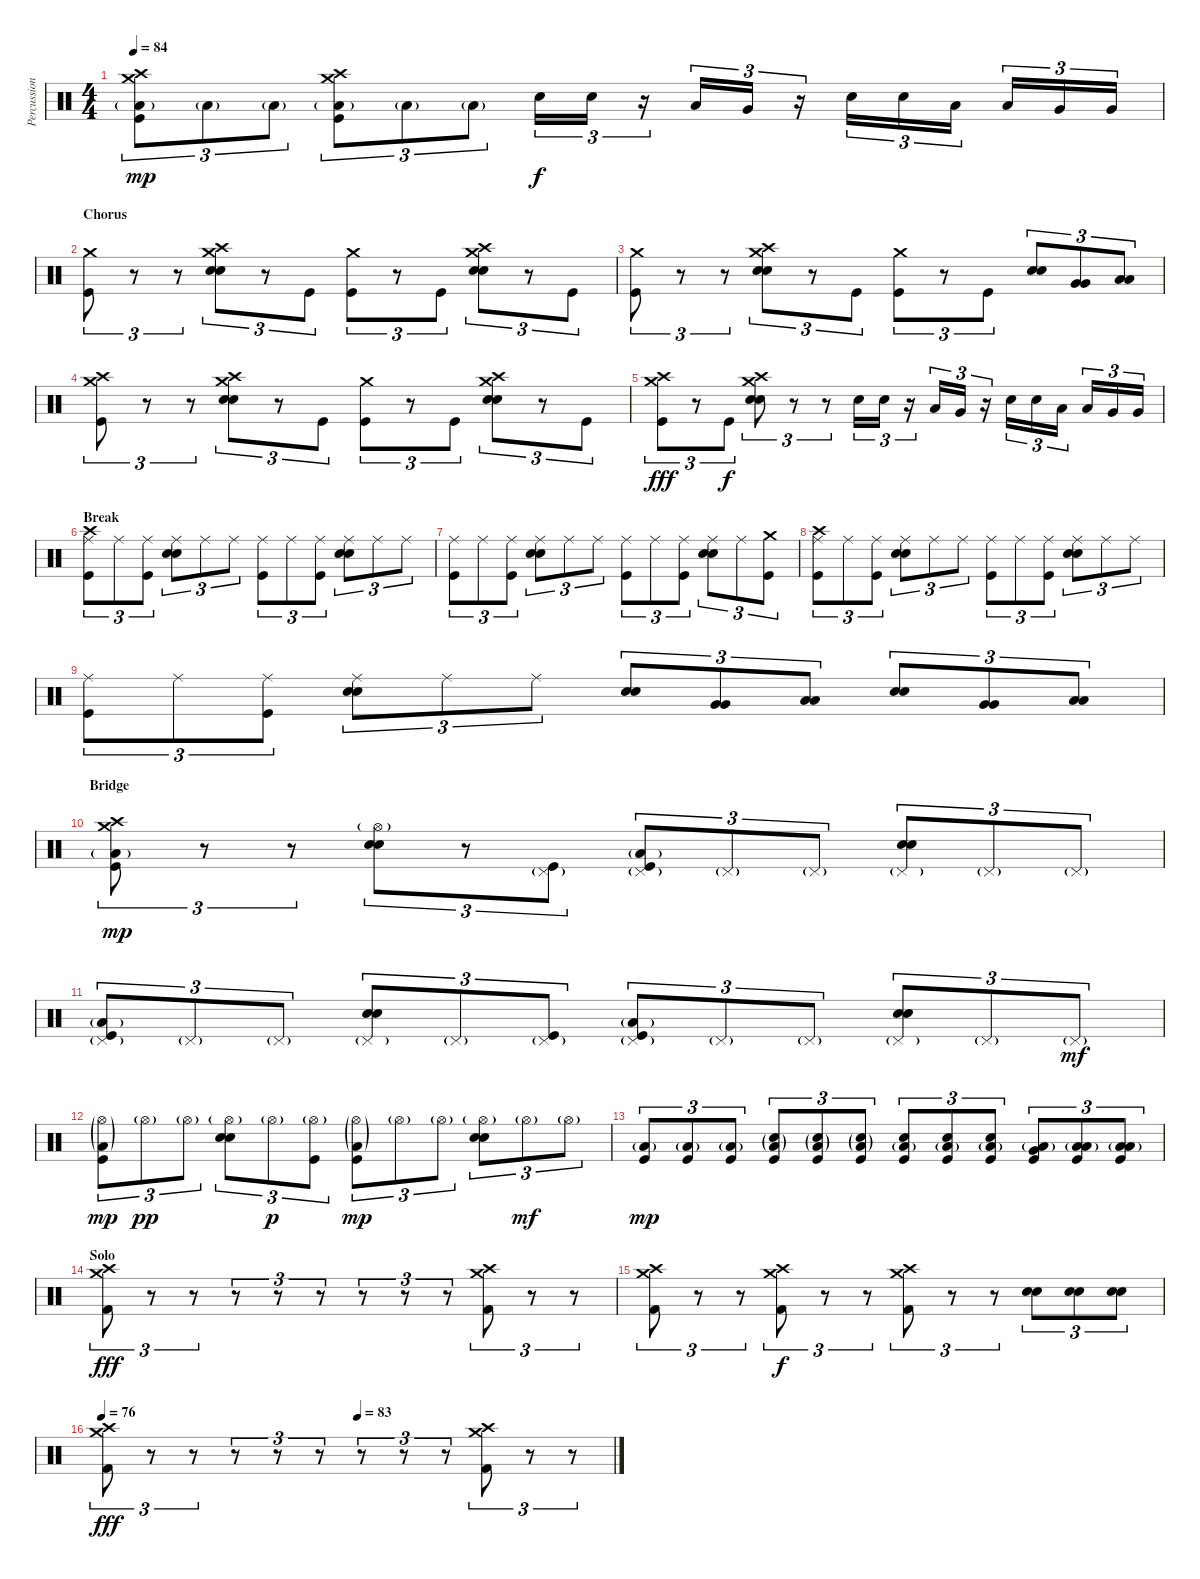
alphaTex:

\track ("Percussion" "Percussion") {instrument percussion}
\staff {score}
\articulation defaults
\ts (4 4)
\tempo 84
\clef neutral
\ks c
("Crash high (hit)" "Crash medium (hit)" "Kick (hit)" "Low Floor Tom (hit)"{g}).8{tu (3 2) dy mp} "Low Floor Tom (hit)"{g}.8{tu (3 2)} "Low Floor Tom (hit)"{g}.8{tu (3 2)} ("Crash high (hit)" "Crash medium (hit)" "Kick (hit)" "Low Floor Tom (hit)"{g}).8{tu (3 2)} "Low Floor Tom (hit)"{g}.8{tu (3 2)} "Low Floor Tom (hit)"{g}.8{tu (3 2)} "Snare (hit) 2".16{tu (3 2) dy f} "Snare (hit) 2".16{tu (3 2)} r.16{tu (3 2)} "Low Tom (hit)".16{tu (3 2)} "Very Low Tom (hit)".16{tu (3 2)} r.16{tu (3 2)} "Snare (hit) 2".16{tu (3 2)} "Snare (hit) 2".16{tu (3 2)} "Low Tom (hit)".16{tu (3 2)} "Low Tom (hit)".16{tu (3 2)} "Very Low Tom (hit)".16{tu (3 2)} "Very Low Tom (hit)".16{tu (3 2)} |
\section ("" "Chorus")
("Crash medium (hit)" "Kick (hit)").8{tu (3 2)} r.8{tu (3 2)} r.8{tu (3 2)} ("Crash high (hit)" "Crash medium (hit)" "Snare (hit) 2" "Snare (hit) 2").8{tu (3 2)} r.8{tu (3 2)} "Kick (hit)".8{tu (3 2)} ("Crash medium (hit)" "Kick (hit)").8{tu (3 2)} r.8{tu (3 2)} "Kick (hit)".8{tu (3 2)} ("Crash high (hit)" "Crash medium (hit)" "Snare (hit) 2" "Snare (hit) 2").8{tu (3 2)} r.8{tu (3 2)} "Kick (hit)".8{tu (3 2)} |
("Crash medium (hit)" "Kick (hit)").8{tu (3 2)} r.8{tu (3 2)} r.8{tu (3 2)} ("Crash high (hit)" "Crash medium (hit)" "Snare (hit) 2" "Snare (hit) 2").8{tu (3 2)} r.8{tu (3 2)} "Kick (hit)".8{tu (3 2)} ("Crash medium (hit)" "Kick (hit)").8{tu (3 2)} r.8{tu (3 2)} "Kick (hit)".8{tu (3 2)} ("Snare (hit) 2" "Snare (hit) 2").8{tu (3 2)} ("Very Low Tom (hit)" "Very Low Tom (hit)").8{tu (3 2)} ("Low Floor Tom (hit)" "Low Floor Tom (hit)").8{tu (3 2)} |
("Crash high (hit)" "Crash medium (hit)" "Kick (hit)").8{tu (3 2)} r.8{tu (3 2)} r.8{tu (3 2)} ("Crash high (hit)" "Crash medium (hit)" "Snare (hit) 2" "Snare (hit) 2").8{tu (3 2)} r.8{tu (3 2)} "Kick (hit)".8{tu (3 2)} ("Crash medium (hit)" "Kick (hit)").8{tu (3 2)} r.8{tu (3 2)} "Kick (hit)".8{tu (3 2)} ("Crash high (hit)" "Crash medium (hit)" "Snare (hit) 2" "Snare (hit) 2").8{tu (3 2)} r.8{tu (3 2)} "Kick (hit)".8{tu (3 2)} |
("Crash high (hit)" "Crash medium (hit)" "Kick (hit)").8{tu (3 2) dy fff} r.8{tu (3 2)} "Kick (hit)".8{tu (3 2) dy f} ("Crash high (hit)" "Crash medium (hit)" "Snare (hit) 2" "Snare (hit) 2").8{tu (3 2)} r.8{tu (3 2)} r.8{tu (3 2)} "Snare (hit) 2".16{tu (3 2)} "Snare (hit) 2".16{tu (3 2)} r.16{tu (3 2)} "Low Tom (hit)".16{tu (3 2)} "Very Low Tom (hit)".16{tu (3 2)} r.16{tu (3 2)} "Snare (hit) 2".16{tu (3 2)} "Snare (hit) 2".16{tu (3 2)} "Low Tom (hit)".16{tu (3 2)} "Low Tom (hit)".16{tu (3 2)} "Very Low Tom (hit)".16{tu (3 2)} "Very Low Tom (hit)".16{tu (3 2)} |
\section ("" "Break")
("Crash high (hit)" "Ride (middle)" "Kick (hit)").8{tu (3 2)} "Ride (middle)".8{tu (3 2)} ("Ride (middle)" "Kick (hit)").8{tu (3 2)} ("Ride (middle)" "Snare (hit) 2" "Snare (hit) 2").8{tu (3 2)} "Ride (middle)".8{tu (3 2)} "Ride (middle)".8{tu (3 2)} ("Ride (middle)" "Kick (hit)").8{tu (3 2)} "Ride (middle)".8{tu (3 2)} ("Ride (middle)" "Kick (hit)").8{tu (3 2)} ("Ride (middle)" "Snare (hit) 2" "Snare (hit) 2").8{tu (3 2)} "Ride (middle)".8{tu (3 2)} "Ride (middle)".8{tu (3 2)} |
("Ride (middle)" "Kick (hit)").8{tu (3 2)} "Ride (middle)".8{tu (3 2)} ("Ride (middle)" "Kick (hit)").8{tu (3 2)} ("Ride (middle)" "Snare (hit) 2" "Snare (hit) 2").8{tu (3 2)} "Ride (middle)".8{tu (3 2)} "Ride (middle)".8{tu (3 2)} ("Ride (middle)" "Kick (hit)").8{tu (3 2)} "Ride (middle)".8{tu (3 2)} ("Ride (middle)" "Kick (hit)").8{tu (3 2)} ("Ride (middle)" "Snare (hit) 2" "Snare (hit) 2").8{tu (3 2)} "Ride (middle)".8{tu (3 2)} ("Crash medium (hit)" "Kick (hit)").8{tu (3 2)} |
("Crash high (hit)" "Ride (middle)" "Kick (hit)").8{tu (3 2)} "Ride (middle)".8{tu (3 2)} ("Ride (middle)" "Kick (hit)").8{tu (3 2)} ("Ride (middle)" "Snare (hit) 2" "Snare (hit) 2").8{tu (3 2)} "Ride (middle)".8{tu (3 2)} "Ride (middle)".8{tu (3 2)} ("Ride (middle)" "Kick (hit)").8{tu (3 2)} "Ride (middle)".8{tu (3 2)} ("Ride (middle)" "Kick (hit)").8{tu (3 2)} ("Ride (middle)" "Snare (hit) 2" "Snare (hit) 2").8{tu (3 2)} "Ride (middle)".8{tu (3 2)} "Ride (middle)".8{tu (3 2)} |
("Ride (middle)" "Kick (hit)").8{tu (3 2)} "Ride (middle)".8{tu (3 2)} ("Ride (middle)" "Kick (hit)").8{tu (3 2)} ("Ride (middle)" "Snare (hit) 2" "Snare (hit) 2").8{tu (3 2)} "Ride (middle)".8{tu (3 2)} "Ride (middle)".8{tu (3 2)} ("Snare (hit) 2" "Snare (hit) 2").8{tu (3 2)} ("Very Low Tom (hit)" "Very Low Tom (hit)").8{tu (3 2)} ("Low Floor Tom (hit)" "Low Floor Tom (hit)").8{tu (3 2)} ("Snare (hit) 2" "Snare (hit) 2").8{tu (3 2)} ("Very Low Tom (hit)" "Very Low Tom (hit)").8{tu (3 2)} ("Low Floor Tom (hit)" "Low Floor Tom (hit)").8{tu (3 2)} |
\section ("" "Bridge")
("Crash high (hit)" "Crash medium (hit)" "Kick (hit)" "Low Floor Tom (hit)"{g}).8{tu (3 2) dy mp} r.8{tu (3 2)} r.8{tu (3 2)} ("Hi-Hat (open)"{g} "Snare (hit) 2" "Snare (hit) 2").8{tu (3 2)} r.8{tu (3 2)} ("Pedal Hi-Hat (hit)"{g} "Kick (hit)").8{tu (3 2)} ("Pedal Hi-Hat (hit)"{g} "Kick (hit)" "Low Floor Tom (hit)"{g}).8{tu (3 2)} "Pedal Hi-Hat (hit)"{g}.8{tu (3 2)} "Pedal Hi-Hat (hit)"{g}.8{tu (3 2)} ("Pedal Hi-Hat (hit)"{g} "Snare (hit) 2" "Snare (hit) 2").8{tu (3 2)} "Pedal Hi-Hat (hit)"{g}.8{tu (3 2)} "Pedal Hi-Hat (hit)"{g}.8{tu (3 2)} |
("Pedal Hi-Hat (hit)"{g} "Kick (hit)" "Low Floor Tom (hit)"{g}).8{tu (3 2)} "Pedal Hi-Hat (hit)"{g}.8{tu (3 2)} "Pedal Hi-Hat (hit)"{g}.8{tu (3 2)} ("Pedal Hi-Hat (hit)"{g} "Snare (hit) 2" "Snare (hit) 2").8{tu (3 2)} "Pedal Hi-Hat (hit)"{g}.8{tu (3 2)} ("Pedal Hi-Hat (hit)"{g} "Kick (hit)").8{tu (3 2)} ("Pedal Hi-Hat (hit)"{g} "Kick (hit)" "Low Floor Tom (hit)"{g}).8{tu (3 2)} "Pedal Hi-Hat (hit)"{g}.8{tu (3 2)} "Pedal Hi-Hat (hit)"{g}.8{tu (3 2)} ("Pedal Hi-Hat (hit)"{g} "Snare (hit) 2" "Snare (hit) 2").8{tu (3 2)} "Pedal Hi-Hat (hit)"{g}.8{tu (3 2)} "Pedal Hi-Hat (hit)"{g}.8{tu (3 2) dy mf} |
("Hi-Hat (open)"{g} "Kick (hit)" "Low Floor Tom (hit)"{g}).8{tu (3 2) dy mp} "Hi-Hat (open)"{g}.8{tu (3 2) dy pp} "Hi-Hat (open)"{g}.8{tu (3 2)} ("Hi-Hat (open)"{g} "Snare (hit) 2" "Snare (hit) 2").8{tu (3 2)} "Hi-Hat (open)"{g}.8{tu (3 2) dy p} ("Hi-Hat (open)"{g} "Kick (hit)").8{tu (3 2)} ("Hi-Hat (open)"{g} "Kick (hit)" "Low Floor Tom (hit)"{g}).8{tu (3 2) dy mp} "Hi-Hat (open)"{g}.8{tu (3 2)} "Hi-Hat (open)"{g}.8{tu (3 2)} ("Hi-Hat (open)"{g} "Snare (hit) 2" "Snare (hit) 2").8{tu (3 2)} "Hi-Hat (open)"{g}.8{tu (3 2) dy mf} "Hi-Hat (open)"{g}.8{tu (3 2)} |
("Kick (hit)" "Low Floor Tom (hit)"{g}).8{tu (3 2) dy mp} ("Kick (hit)" "Low Floor Tom (hit)"{g}).8{tu (3 2)} ("Kick (hit)" "Low Floor Tom (hit)"{g}).8{tu (3 2)} ("Snare (hit) 2"{g} "Kick (hit)" "Low Floor Tom (hit)"{g}).8{tu (3 2)} ("Snare (hit) 2"{g} "Kick (hit)" "Low Floor Tom (hit)"{g}).8{tu (3 2)} ("Snare (hit) 2"{g} "Kick (hit)" "Low Floor Tom (hit)"{g}).8{tu (3 2)} ("Snare (hit) 2" "Kick (hit)" "Low Floor Tom (hit)"{g}).8{tu (3 2)} ("Snare (hit) 2" "Kick (hit)" "Low Floor Tom (hit)"{g}).8{tu (3 2)} ("Snare (hit) 2" "Kick (hit)" "Low Floor Tom (hit)"{g}).8{tu (3 2)} ("Very Low Tom (hit)" "Kick (hit)" "Low Floor Tom (hit)"{g}).8{tu (3 2)} ("Low Floor Tom (hit)" "Kick (hit)" "Low Floor Tom (hit)"{g}).8{tu (3 2)} ("Low Floor Tom (hit)" "Kick (hit)" "Low Floor Tom (hit)"{g}).8{tu (3 2)} |
\section ("" "Solo")
("Crash high (hit)" "Crash medium (hit)" "Kick (hit) 2").8{tu (3 2) dy fff} r.8{tu (3 2)} r.8{tu (3 2)} r.8{tu (3 2)} r.8{tu (3 2)} r.8{tu (3 2)} r.8{tu (3 2)} r.8{tu (3 2)} r.8{tu (3 2)} ("Crash high (hit)" "Crash medium (hit)" "Kick (hit) 2").8{tu (3 2)} r.8{tu (3 2)} r.8{tu (3 2)} |
("Crash high (hit)" "Crash medium (hit)" "Kick (hit) 2").8{tu (3 2)} r.8{tu (3 2)} r.8{tu (3 2)} ("Crash high (hit)" "Crash medium (hit)" "Kick (hit) 2").8{tu (3 2) dy f} r.8{tu (3 2)} r.8{tu (3 2)} ("Crash high (hit)" "Crash medium (hit)" "Kick (hit) 2").8{tu (3 2)} r.8{tu (3 2)} r.8{tu (3 2)} ("Snare (hit) 2" "Snare (hit) 2").8{tu (3 2)} ("Snare (hit) 2" "Snare (hit) 2").8{tu (3 2)} ("Snare (hit) 2" "Snare (hit) 2").8{tu (3 2)} |
\tempo 76
\tempo (83 0.5)
("Crash high (hit)" "Crash medium (hit)" "Kick (hit) 2").8{tu (3 2) dy fff} r.8{tu (3 2)} r.8{tu (3 2)} r.8{tu (3 2)} r.8{tu (3 2)} r.8{tu (3 2)} r.8{tu (3 2)} r.8{tu (3 2)} r.8{tu (3 2)} ("Crash high (hit)" "Crash medium (hit)" "Kick (hit) 2").8{tu (3 2)} r.8{tu (3 2)} r.8{tu (3 2)}
